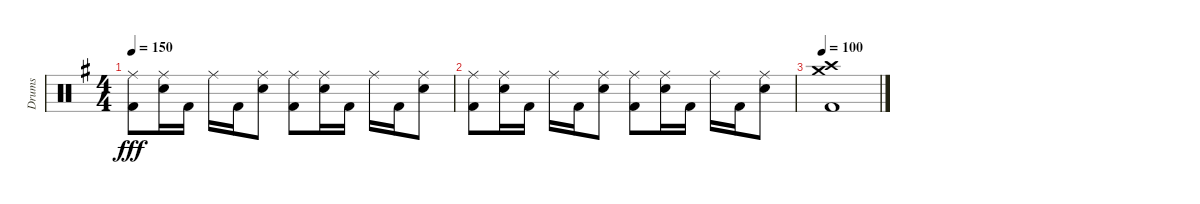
\track ("Drums" "Drums") {instrument percussion}
\staff {score}
\articulation defaults
\ts (4 4)
\tempo 150
\clef neutral
\ks g
("Ride (middle)" "Kick (hit) 2").8{dy fff} ("Ride (middle)" "Electric Snare (hit)").16 "Kick (hit) 2".16 "Ride (middle)".16 "Kick (hit) 2".16 ("Ride (middle)" "Electric Snare (hit)").8 ("Ride (middle)" "Kick (hit) 2").8 ("Ride (middle)" "Electric Snare (hit)").16 "Kick (hit) 2".16 "Ride (middle)".16 "Kick (hit) 2".16 ("Ride (middle)" "Electric Snare (hit)").8 |
("Ride (middle)" "Kick (hit) 2").8 ("Ride (middle)" "Electric Snare (hit)").16 "Kick (hit) 2".16 "Ride (middle)".16 "Kick (hit) 2".16 ("Ride (middle)" "Electric Snare (hit)").8 ("Ride (middle)" "Kick (hit) 2").8 ("Ride (middle)" "Electric Snare (hit)").16 "Kick (hit) 2".16 "Ride (middle)".16 "Kick (hit) 2".16 ("Ride (middle)" "Electric Snare (hit)").8 |
\tempo 100
("Crash high (hit)" "Crash medium (hit)" "Kick (hit) 2").1
